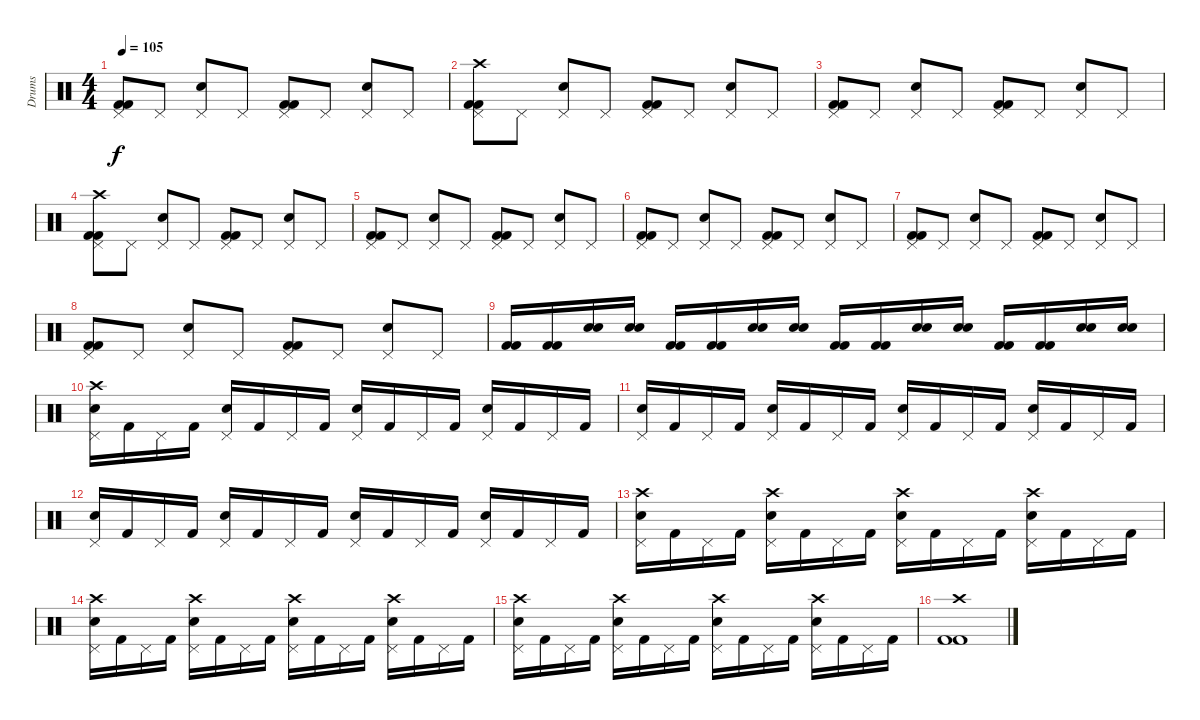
\track ("Drums" "Drums") {instrument percussion}
\staff {score}
\articulation defaults
\ts (4 4)
\tempo 105
\clef neutral
\ks c
("Pedal Hi-Hat (hit)" "Kick (hit) 2" "Kick (hit) 2").8{dy f} "Pedal Hi-Hat (hit)".8 ("Pedal Hi-Hat (hit)" "Electric Snare (hit)").8 "Pedal Hi-Hat (hit)".8 ("Pedal Hi-Hat (hit)" "Kick (hit) 2" "Kick (hit) 2").8 "Pedal Hi-Hat (hit)".8 ("Pedal Hi-Hat (hit)" "Electric Snare (hit)").8 "Pedal Hi-Hat (hit)".8 |
("Pedal Hi-Hat (hit)" "Crash high (hit)" "Kick (hit) 2" "Kick (hit) 2").8 "Pedal Hi-Hat (hit)".8 ("Pedal Hi-Hat (hit)" "Electric Snare (hit)").8 "Pedal Hi-Hat (hit)".8 ("Pedal Hi-Hat (hit)" "Kick (hit) 2" "Kick (hit) 2").8 "Pedal Hi-Hat (hit)".8 ("Pedal Hi-Hat (hit)" "Electric Snare (hit)").8 "Pedal Hi-Hat (hit)".8 |
("Pedal Hi-Hat (hit)" "Kick (hit) 2" "Kick (hit) 2").8 "Pedal Hi-Hat (hit)".8 ("Pedal Hi-Hat (hit)" "Electric Snare (hit)").8 "Pedal Hi-Hat (hit)".8 ("Pedal Hi-Hat (hit)" "Kick (hit) 2" "Kick (hit) 2").8 "Pedal Hi-Hat (hit)".8 ("Pedal Hi-Hat (hit)" "Electric Snare (hit)").8 "Pedal Hi-Hat (hit)".8 |
("Pedal Hi-Hat (hit)" "Crash high (hit)" "Kick (hit) 2" "Kick (hit) 2").8 "Pedal Hi-Hat (hit)".8 ("Pedal Hi-Hat (hit)" "Electric Snare (hit)").8 "Pedal Hi-Hat (hit)".8 ("Pedal Hi-Hat (hit)" "Kick (hit) 2" "Kick (hit) 2").8 "Pedal Hi-Hat (hit)".8 ("Pedal Hi-Hat (hit)" "Electric Snare (hit)").8 "Pedal Hi-Hat (hit)".8 |
("Pedal Hi-Hat (hit)" "Kick (hit) 2" "Kick (hit) 2").8 "Pedal Hi-Hat (hit)".8 ("Pedal Hi-Hat (hit)" "Electric Snare (hit)").8 "Pedal Hi-Hat (hit)".8 ("Pedal Hi-Hat (hit)" "Kick (hit) 2" "Kick (hit) 2").8 "Pedal Hi-Hat (hit)".8 ("Pedal Hi-Hat (hit)" "Electric Snare (hit)").8 "Pedal Hi-Hat (hit)".8 |
("Pedal Hi-Hat (hit)" "Kick (hit) 2" "Kick (hit) 2").8 "Pedal Hi-Hat (hit)".8 ("Pedal Hi-Hat (hit)" "Electric Snare (hit)").8 "Pedal Hi-Hat (hit)".8 ("Pedal Hi-Hat (hit)" "Kick (hit) 2" "Kick (hit) 2").8 "Pedal Hi-Hat (hit)".8 ("Pedal Hi-Hat (hit)" "Electric Snare (hit)").8 "Pedal Hi-Hat (hit)".8 |
("Pedal Hi-Hat (hit)" "Kick (hit) 2" "Kick (hit) 2").8 "Pedal Hi-Hat (hit)".8 ("Pedal Hi-Hat (hit)" "Electric Snare (hit)").8 "Pedal Hi-Hat (hit)".8 ("Pedal Hi-Hat (hit)" "Kick (hit) 2" "Kick (hit) 2").8 "Pedal Hi-Hat (hit)".8 ("Pedal Hi-Hat (hit)" "Electric Snare (hit)").8 "Pedal Hi-Hat (hit)".8 |
("Pedal Hi-Hat (hit)" "Kick (hit) 2" "Kick (hit) 2").8 "Pedal Hi-Hat (hit)".8 ("Pedal Hi-Hat (hit)" "Electric Snare (hit)").8 "Pedal Hi-Hat (hit)".8 ("Pedal Hi-Hat (hit)" "Kick (hit) 2" "Kick (hit) 2").8 "Pedal Hi-Hat (hit)".8 ("Pedal Hi-Hat (hit)" "Electric Snare (hit)").8 "Pedal Hi-Hat (hit)".8 |
("Kick (hit) 2" "Kick (hit) 2").16 ("Kick (hit) 2" "Kick (hit) 2").16 ("Electric Snare (hit)" "Electric Snare (hit)").16 ("Electric Snare (hit)" "Electric Snare (hit)").16 ("Kick (hit) 2" "Kick (hit) 2").16 ("Kick (hit) 2" "Kick (hit) 2").16 ("Electric Snare (hit)" "Electric Snare (hit)").16 ("Electric Snare (hit)" "Electric Snare (hit)").16 ("Kick (hit) 2" "Kick (hit) 2").16 ("Kick (hit) 2" "Kick (hit) 2").16 ("Electric Snare (hit)" "Electric Snare (hit)").16 ("Electric Snare (hit)" "Electric Snare (hit)").16 ("Kick (hit) 2" "Kick (hit) 2").16 ("Kick (hit) 2" "Kick (hit) 2").16 ("Electric Snare (hit)" "Electric Snare (hit)").16 ("Electric Snare (hit)" "Electric Snare (hit)").16 |
("Pedal Hi-Hat (hit)" "Crash high (hit)" "Electric Snare (hit)").16 "Kick (hit) 2".16 "Pedal Hi-Hat (hit)".16 "Kick (hit) 2".16 ("Pedal Hi-Hat (hit)" "Electric Snare (hit)").16 "Kick (hit) 2".16 "Pedal Hi-Hat (hit)".16 "Kick (hit) 2".16 ("Pedal Hi-Hat (hit)" "Electric Snare (hit)").16 "Kick (hit) 2".16 "Pedal Hi-Hat (hit)".16 "Kick (hit) 2".16 ("Pedal Hi-Hat (hit)" "Electric Snare (hit)").16 "Kick (hit) 2".16 "Pedal Hi-Hat (hit)".16 "Kick (hit) 2".16 |
("Pedal Hi-Hat (hit)" "Electric Snare (hit)").16 "Kick (hit) 2".16 "Pedal Hi-Hat (hit)".16 "Kick (hit) 2".16 ("Pedal Hi-Hat (hit)" "Electric Snare (hit)").16 "Kick (hit) 2".16 "Pedal Hi-Hat (hit)".16 "Kick (hit) 2".16 ("Pedal Hi-Hat (hit)" "Electric Snare (hit)").16 "Kick (hit) 2".16 "Pedal Hi-Hat (hit)".16 "Kick (hit) 2".16 ("Pedal Hi-Hat (hit)" "Electric Snare (hit)").16 "Kick (hit) 2".16 "Pedal Hi-Hat (hit)".16 "Kick (hit) 2".16 |
("Pedal Hi-Hat (hit)" "Electric Snare (hit)").16 "Kick (hit) 2".16 "Pedal Hi-Hat (hit)".16 "Kick (hit) 2".16 ("Pedal Hi-Hat (hit)" "Electric Snare (hit)").16 "Kick (hit) 2".16 "Pedal Hi-Hat (hit)".16 "Kick (hit) 2".16 ("Pedal Hi-Hat (hit)" "Electric Snare (hit)").16 "Kick (hit) 2".16 "Pedal Hi-Hat (hit)".16 "Kick (hit) 2".16 ("Pedal Hi-Hat (hit)" "Electric Snare (hit)").16 "Kick (hit) 2".16 "Pedal Hi-Hat (hit)".16 "Kick (hit) 2".16 |
("Pedal Hi-Hat (hit)" "Crash high (hit)" "Electric Snare (hit)").16{volume 8} "Kick (hit) 2".16 "Pedal Hi-Hat (hit)".16 "Kick (hit) 2".16 ("Pedal Hi-Hat (hit)" "Crash high (hit)" "Electric Snare (hit)").16 "Kick (hit) 2".16 "Pedal Hi-Hat (hit)".16 "Kick (hit) 2".16 ("Pedal Hi-Hat (hit)" "Crash high (hit)" "Electric Snare (hit)").16 "Kick (hit) 2".16 "Pedal Hi-Hat (hit)".16 "Kick (hit) 2".16 ("Pedal Hi-Hat (hit)" "Crash high (hit)" "Electric Snare (hit)").16 "Kick (hit) 2".16 "Pedal Hi-Hat (hit)".16 "Kick (hit) 2".16 |
("Pedal Hi-Hat (hit)" "Crash high (hit)" "Electric Snare (hit)").16{volume 3} "Kick (hit) 2".16 "Pedal Hi-Hat (hit)".16 "Kick (hit) 2".16 ("Pedal Hi-Hat (hit)" "Crash high (hit)" "Electric Snare (hit)").16 "Kick (hit) 2".16 "Pedal Hi-Hat (hit)".16 "Kick (hit) 2".16 ("Pedal Hi-Hat (hit)" "Crash high (hit)" "Electric Snare (hit)").16 "Kick (hit) 2".16 "Pedal Hi-Hat (hit)".16 "Kick (hit) 2".16 ("Pedal Hi-Hat (hit)" "Crash high (hit)" "Electric Snare (hit)").16 "Kick (hit) 2".16 "Pedal Hi-Hat (hit)".16 "Kick (hit) 2".16 |
("Pedal Hi-Hat (hit)" "Crash high (hit)" "Electric Snare (hit)").16 "Kick (hit) 2".16{volume 1} "Pedal Hi-Hat (hit)".16 "Kick (hit) 2".16 ("Pedal Hi-Hat (hit)" "Crash high (hit)" "Electric Snare (hit)").16 "Kick (hit) 2".16 "Pedal Hi-Hat (hit)".16 "Kick (hit) 2".16 ("Pedal Hi-Hat (hit)" "Crash high (hit)" "Electric Snare (hit)").16 "Kick (hit) 2".16 "Pedal Hi-Hat (hit)".16 "Kick (hit) 2".16 ("Pedal Hi-Hat (hit)" "Crash high (hit)" "Electric Snare (hit)").16 "Kick (hit) 2".16 "Pedal Hi-Hat (hit)".16 "Kick (hit) 2".16 |
("Crash high (hit)" "Kick (hit) 2" "Kick (hit) 2").1
